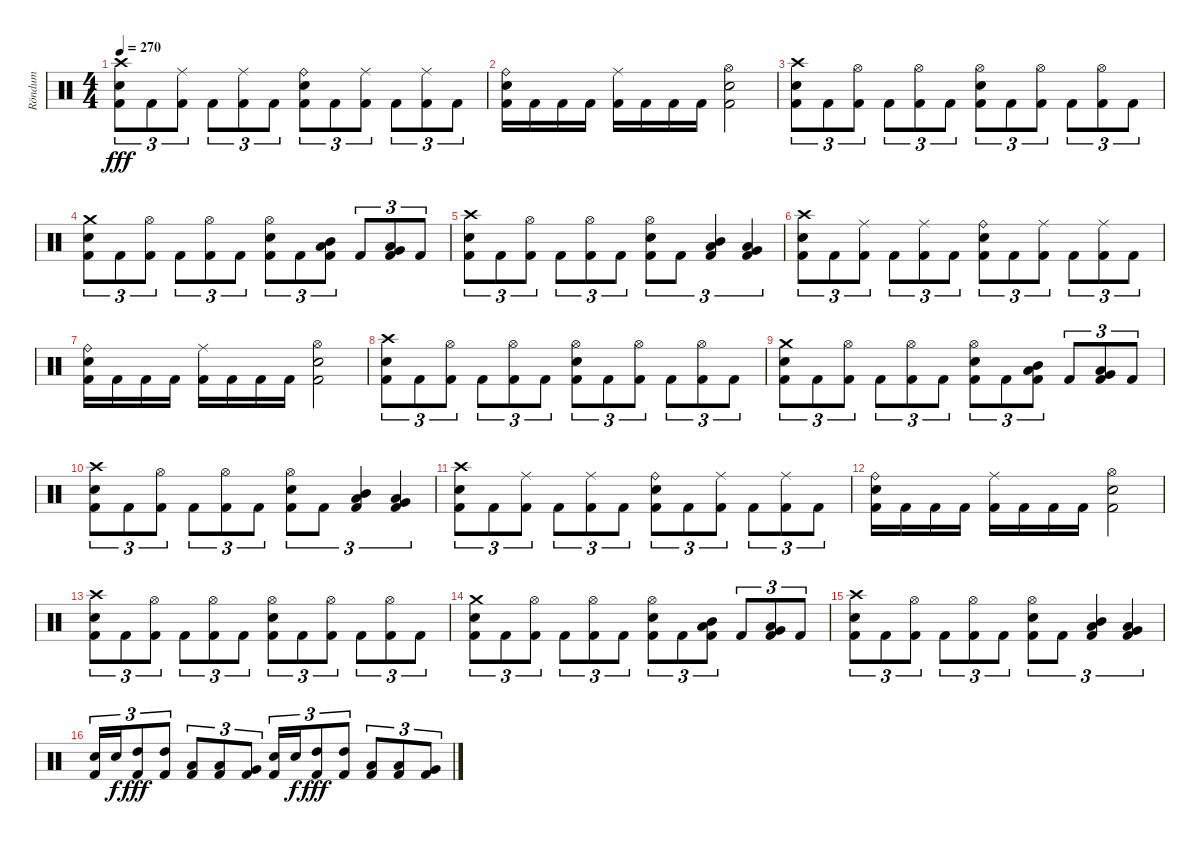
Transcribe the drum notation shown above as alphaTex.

\track ("Röndum" "Röndum") {instrument percussion}
\staff {score}
\articulation defaults
\ts (4 4)
\tempo 270
\clef neutral
\ks c
("Crash high (hit)" "Snare (hit) 2" "Kick (hit) 2").8{tu (3 2) dy fff} "Kick (hit) 2".8{tu (3 2)} ("Ride (middle)" "Kick (hit) 2").8{tu (3 2)} "Kick (hit) 2".8{tu (3 2)} ("Ride (middle)" "Kick (hit) 2").8{tu (3 2)} "Kick (hit) 2".8{tu (3 2)} ("Ride (bell)" "Snare (hit) 2" "Kick (hit) 2").8{tu (3 2)} "Kick (hit) 2".8{tu (3 2)} ("Ride (middle)" "Kick (hit) 2").8{tu (3 2)} "Kick (hit) 2".8{tu (3 2)} ("Ride (middle)" "Kick (hit) 2").8{tu (3 2)} "Kick (hit) 2".8{tu (3 2)} |
("Ride (bell)" "Snare (hit) 2" "Kick (hit) 2").16 "Kick (hit) 2".16 "Kick (hit) 2".16 "Kick (hit) 2".16 ("Ride (middle)" "Kick (hit) 2").16 "Kick (hit) 2".16 "Kick (hit) 2".16 "Kick (hit) 2".16 ("Hi-Hat (open)" "Snare (hit) 2" "Kick (hit) 2").2 |
("Crash high (hit)" "Snare (hit) 2" "Kick (hit) 2").8{tu (3 2)} "Kick (hit) 2".8{tu (3 2)} ("Hi-Hat (open)" "Kick (hit) 2").8{tu (3 2)} "Kick (hit) 2".8{tu (3 2)} ("Hi-Hat (open)" "Kick (hit) 2").8{tu (3 2)} "Kick (hit) 2".8{tu (3 2)} ("Hi-Hat (open)" "Snare (hit) 2" "Kick (hit) 2").8{tu (3 2)} "Kick (hit) 2".8{tu (3 2)} ("Hi-Hat (open)" "Kick (hit) 2").8{tu (3 2)} "Kick (hit) 2".8{tu (3 2)} ("Hi-Hat (open)" "Kick (hit) 2").8{tu (3 2)} "Kick (hit) 2".8{tu (3 2)} |
("Crash medium (hit)" "Snare (hit) 2" "Kick (hit) 2").8{tu (3 2)} "Kick (hit) 2".8{tu (3 2)} ("Hi-Hat (open)" "Kick (hit) 2").8{tu (3 2)} "Kick (hit) 2".8{tu (3 2)} ("Hi-Hat (open)" "Kick (hit) 2").8{tu (3 2)} "Kick (hit) 2".8{tu (3 2)} ("Hi-Hat (open)" "Snare (hit) 2" "Kick (hit) 2").8{tu (3 2)} "Kick (hit) 2".8{tu (3 2)} ("Low Tom (hit)" "Mid Tom (hit)" "Kick (hit) 2").8{tu (3 2)} "Kick (hit) 2".8{tu (3 2)} ("Very Low Tom (hit)" "Low Tom (hit)" "Kick (hit) 2").8{tu (3 2)} "Kick (hit) 2".8{tu (3 2)} |
("Crash high (hit)" "Snare (hit) 2" "Kick (hit) 2").8{tu (3 2)} "Kick (hit) 2".8{tu (3 2)} ("Hi-Hat (open)" "Kick (hit) 2").8{tu (3 2)} "Kick (hit) 2".8{tu (3 2)} ("Hi-Hat (open)" "Kick (hit) 2").8{tu (3 2)} "Kick (hit) 2".8{tu (3 2)} ("Hi-Hat (open)" "Snare (hit) 2" "Kick (hit) 2").8{tu (3 2)} "Kick (hit) 2".8{tu (3 2)} ("Mid Tom (hit)" "Low Tom (hit)" "Kick (hit) 2").4{tu (3 2)} ("Low Tom (hit)" "Very Low Tom (hit)" "Kick (hit) 2").4{tu (3 2)} |
("Crash high (hit)" "Snare (hit) 2" "Kick (hit) 2").8{tu (3 2)} "Kick (hit) 2".8{tu (3 2)} ("Ride (middle)" "Kick (hit) 2").8{tu (3 2)} "Kick (hit) 2".8{tu (3 2)} ("Ride (middle)" "Kick (hit) 2").8{tu (3 2)} "Kick (hit) 2".8{tu (3 2)} ("Ride (bell)" "Snare (hit) 2" "Kick (hit) 2").8{tu (3 2)} "Kick (hit) 2".8{tu (3 2)} ("Ride (middle)" "Kick (hit) 2").8{tu (3 2)} "Kick (hit) 2".8{tu (3 2)} ("Ride (middle)" "Kick (hit) 2").8{tu (3 2)} "Kick (hit) 2".8{tu (3 2)} |
("Ride (bell)" "Snare (hit) 2" "Kick (hit) 2").16 "Kick (hit) 2".16 "Kick (hit) 2".16 "Kick (hit) 2".16 ("Ride (middle)" "Kick (hit) 2").16 "Kick (hit) 2".16 "Kick (hit) 2".16 "Kick (hit) 2".16 ("Hi-Hat (open)" "Snare (hit) 2" "Kick (hit) 2").2 |
("Crash high (hit)" "Snare (hit) 2" "Kick (hit) 2").8{tu (3 2)} "Kick (hit) 2".8{tu (3 2)} ("Hi-Hat (open)" "Kick (hit) 2").8{tu (3 2)} "Kick (hit) 2".8{tu (3 2)} ("Hi-Hat (open)" "Kick (hit) 2").8{tu (3 2)} "Kick (hit) 2".8{tu (3 2)} ("Hi-Hat (open)" "Snare (hit) 2" "Kick (hit) 2").8{tu (3 2)} "Kick (hit) 2".8{tu (3 2)} ("Hi-Hat (open)" "Kick (hit) 2").8{tu (3 2)} "Kick (hit) 2".8{tu (3 2)} ("Hi-Hat (open)" "Kick (hit) 2").8{tu (3 2)} "Kick (hit) 2".8{tu (3 2)} |
("Crash medium (hit)" "Snare (hit) 2" "Kick (hit) 2").8{tu (3 2)} "Kick (hit) 2".8{tu (3 2)} ("Hi-Hat (open)" "Kick (hit) 2").8{tu (3 2)} "Kick (hit) 2".8{tu (3 2)} ("Hi-Hat (open)" "Kick (hit) 2").8{tu (3 2)} "Kick (hit) 2".8{tu (3 2)} ("Hi-Hat (open)" "Snare (hit) 2" "Kick (hit) 2").8{tu (3 2)} "Kick (hit) 2".8{tu (3 2)} ("Low Tom (hit)" "Mid Tom (hit)" "Kick (hit) 2").8{tu (3 2)} "Kick (hit) 2".8{tu (3 2)} ("Very Low Tom (hit)" "Low Tom (hit)" "Kick (hit) 2").8{tu (3 2)} "Kick (hit) 2".8{tu (3 2)} |
("Crash high (hit)" "Snare (hit) 2" "Kick (hit) 2").8{tu (3 2)} "Kick (hit) 2".8{tu (3 2)} ("Hi-Hat (open)" "Kick (hit) 2").8{tu (3 2)} "Kick (hit) 2".8{tu (3 2)} ("Hi-Hat (open)" "Kick (hit) 2").8{tu (3 2)} "Kick (hit) 2".8{tu (3 2)} ("Hi-Hat (open)" "Snare (hit) 2" "Kick (hit) 2").8{tu (3 2)} "Kick (hit) 2".8{tu (3 2)} ("Mid Tom (hit)" "Low Tom (hit)" "Kick (hit) 2").4{tu (3 2)} ("Low Tom (hit)" "Very Low Tom (hit)" "Kick (hit) 2").4{tu (3 2)} |
("Crash high (hit)" "Snare (hit) 2" "Kick (hit) 2").8{tu (3 2)} "Kick (hit) 2".8{tu (3 2)} ("Ride (middle)" "Kick (hit) 2").8{tu (3 2)} "Kick (hit) 2".8{tu (3 2)} ("Ride (middle)" "Kick (hit) 2").8{tu (3 2)} "Kick (hit) 2".8{tu (3 2)} ("Ride (bell)" "Snare (hit) 2" "Kick (hit) 2").8{tu (3 2)} "Kick (hit) 2".8{tu (3 2)} ("Ride (middle)" "Kick (hit) 2").8{tu (3 2)} "Kick (hit) 2".8{tu (3 2)} ("Ride (middle)" "Kick (hit) 2").8{tu (3 2)} "Kick (hit) 2".8{tu (3 2)} |
("Ride (bell)" "Snare (hit) 2" "Kick (hit) 2").16 "Kick (hit) 2".16 "Kick (hit) 2".16 "Kick (hit) 2".16 ("Ride (middle)" "Kick (hit) 2").16 "Kick (hit) 2".16 "Kick (hit) 2".16 "Kick (hit) 2".16 ("Hi-Hat (open)" "Snare (hit) 2" "Kick (hit) 2").2 |
("Crash high (hit)" "Snare (hit) 2" "Kick (hit) 2").8{tu (3 2)} "Kick (hit) 2".8{tu (3 2)} ("Hi-Hat (open)" "Kick (hit) 2").8{tu (3 2)} "Kick (hit) 2".8{tu (3 2)} ("Hi-Hat (open)" "Kick (hit) 2").8{tu (3 2)} "Kick (hit) 2".8{tu (3 2)} ("Hi-Hat (open)" "Snare (hit) 2" "Kick (hit) 2").8{tu (3 2)} "Kick (hit) 2".8{tu (3 2)} ("Hi-Hat (open)" "Kick (hit) 2").8{tu (3 2)} "Kick (hit) 2".8{tu (3 2)} ("Hi-Hat (open)" "Kick (hit) 2").8{tu (3 2)} "Kick (hit) 2".8{tu (3 2)} |
("Crash medium (hit)" "Snare (hit) 2" "Kick (hit) 2").8{tu (3 2)} "Kick (hit) 2".8{tu (3 2)} ("Hi-Hat (open)" "Kick (hit) 2").8{tu (3 2)} "Kick (hit) 2".8{tu (3 2)} ("Hi-Hat (open)" "Kick (hit) 2").8{tu (3 2)} "Kick (hit) 2".8{tu (3 2)} ("Hi-Hat (open)" "Snare (hit) 2" "Kick (hit) 2").8{tu (3 2)} "Kick (hit) 2".8{tu (3 2)} ("Low Tom (hit)" "Mid Tom (hit)" "Kick (hit) 2").8{tu (3 2)} "Kick (hit) 2".8{tu (3 2)} ("Very Low Tom (hit)" "Low Tom (hit)" "Kick (hit) 2").8{tu (3 2)} "Kick (hit) 2".8{tu (3 2)} |
("Crash high (hit)" "Snare (hit) 2" "Kick (hit) 2").8{tu (3 2)} "Kick (hit) 2".8{tu (3 2)} ("Hi-Hat (open)" "Kick (hit) 2").8{tu (3 2)} "Kick (hit) 2".8{tu (3 2)} ("Hi-Hat (open)" "Kick (hit) 2").8{tu (3 2)} "Kick (hit) 2".8{tu (3 2)} ("Hi-Hat (open)" "Snare (hit) 2" "Kick (hit) 2").8{tu (3 2)} "Kick (hit) 2".8{tu (3 2)} ("Mid Tom (hit)" "Low Tom (hit)" "Kick (hit) 2").4{tu (3 2)} ("Low Tom (hit)" "Very Low Tom (hit)" "Kick (hit) 2").4{tu (3 2)} |
("Snare (hit) 2" "Kick (hit) 2").16{tu (3 2)} "Snare (hit) 2".16{tu (3 2) dy f} ("High Tom (hit)" "Kick (hit) 2").8{tu (3 2) dy fff} ("High Tom (hit)" "Kick (hit) 2").8{tu (3 2)} ("Low Tom (hit)" "Kick (hit) 2").8{tu (3 2)} ("Low Tom (hit)" "Kick (hit) 2").8{tu (3 2)} ("Very Low Tom (hit)" "Kick (hit) 2").8{tu (3 2)} ("Snare (hit) 2" "Kick (hit) 2").16{tu (3 2)} "Snare (hit) 2".16{tu (3 2) dy f} ("High Tom (hit)" "Kick (hit) 2").8{tu (3 2) dy fff} ("High Tom (hit)" "Kick (hit) 2").8{tu (3 2)} ("Low Tom (hit)" "Kick (hit) 2").8{tu (3 2)} ("Low Tom (hit)" "Kick (hit) 2").8{tu (3 2)} ("Very Low Tom (hit)" "Kick (hit) 2").8{tu (3 2)}
